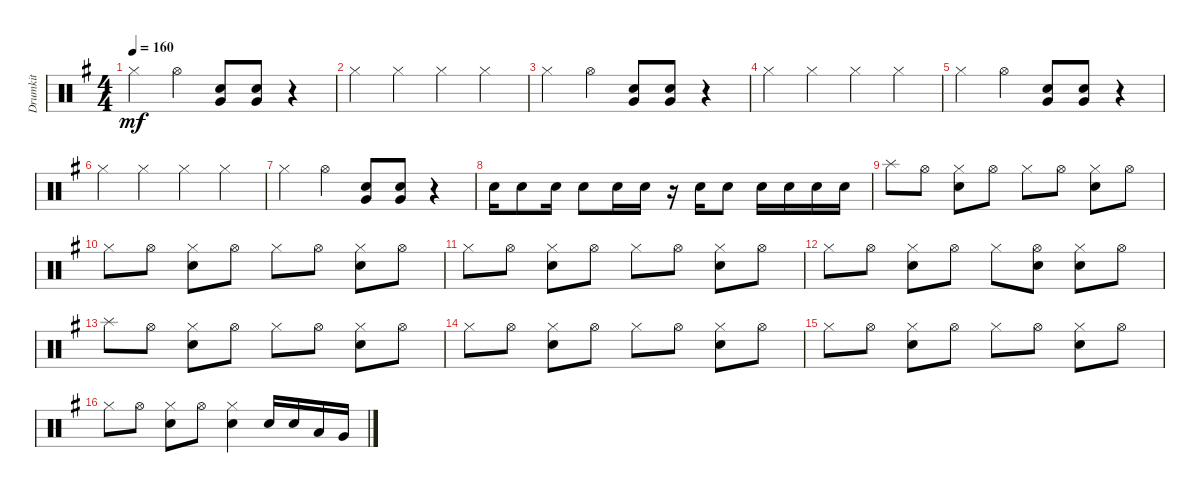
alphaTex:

\track ("Drumkit" "Drumkit") {instrument percussion}
\staff {score}
\articulation defaults
\ts (4 4)
\tempo 160
\clef neutral
\ks g "Hi-Hat (closed)".4{dy mf} "Hi-Hat (open)".4
("Snare (hit) 2" "Very Low Tom (hit)").8 ("Very Low Tom (hit)" "Snare (hit) 2").8 r.4 |
"Hi-Hat (closed)".4 "Hi-Hat (closed)".4 "Hi-Hat (closed)".4 "Hi-Hat (closed)".4 |
"Hi-Hat (closed)".4 "Hi-Hat (open)".4 ("Snare (hit) 2" "Very Low Tom (hit)").8 ("Very Low Tom (hit)" "Snare (hit) 2").8 r.4 |
"Hi-Hat (closed)".4 "Hi-Hat (closed)".4 "Hi-Hat (closed)".4 "Hi-Hat (closed)".4 |
"Hi-Hat (closed)".4 "Hi-Hat (open)".4 ("Snare (hit) 2" "Very Low Tom (hit)").8 ("Very Low Tom (hit)" "Snare (hit) 2").8 r.4 |
"Hi-Hat (closed)".4 "Hi-Hat (closed)".4 "Hi-Hat (closed)".4 "Hi-Hat (closed)".4 |
"Hi-Hat (closed)".4 "Hi-Hat (open)".4 ("Snare (hit) 2" "Very Low Tom (hit)").8 ("Very Low Tom (hit)" "Snare (hit) 2").8 r.4 |
"Snare (hit) 2".16 "Snare (hit) 2".8 "Snare (hit) 2".16 "Snare (hit) 2".8 "Snare (hit) 2".16 "Snare (hit) 2".16 r.16 "Snare (hit) 2".16 "Snare (hit) 2".8 "Snare (hit) 2".16 "Snare (hit) 2".16 "Snare (hit) 2".16 "Snare (hit) 2".16 |
"Splash (hit)".8 "Hi-Hat (open)".8 ("Hi-Hat (closed)" "Snare (hit) 2").8 "Hi-Hat (open)".8 "Hi-Hat (closed)".8 "Hi-Hat (open)".8 ("Hi-Hat (closed)" "Snare (hit) 2").8 "Hi-Hat (open)".8 |
"Hi-Hat (closed)".8 "Hi-Hat (open)".8 ("Hi-Hat (closed)" "Snare (hit) 2").8 "Hi-Hat (open)".8 "Hi-Hat (closed)".8 "Hi-Hat (open)".8 ("Hi-Hat (closed)" "Snare (hit) 2").8 "Hi-Hat (open)".8 |
"Hi-Hat (closed)".8 "Hi-Hat (open)".8 ("Hi-Hat (closed)" "Snare (hit) 2").8 "Hi-Hat (open)".8 "Hi-Hat (closed)".8 "Hi-Hat (open)".8 ("Hi-Hat (closed)" "Snare (hit) 2").8 "Hi-Hat (open)".8 |
"Hi-Hat (closed)".8 "Hi-Hat (open)".8 ("Hi-Hat (closed)" "Snare (hit) 2").8 "Hi-Hat (open)".8 "Hi-Hat (closed)".8 ("Hi-Hat (open)" "Snare (hit) 2").8 ("Snare (hit) 2" "Hi-Hat (closed)").8 "Hi-Hat (open)".8 |
"Splash (hit)".8 "Hi-Hat (open)".8 ("Hi-Hat (closed)" "Snare (hit) 2").8 "Hi-Hat (open)".8 "Hi-Hat (closed)".8 "Hi-Hat (open)".8 ("Hi-Hat (closed)" "Snare (hit) 2").8 "Hi-Hat (open)".8 |
"Hi-Hat (closed)".8 "Hi-Hat (open)".8 ("Hi-Hat (closed)" "Snare (hit) 2").8 "Hi-Hat (open)".8 "Hi-Hat (closed)".8 "Hi-Hat (open)".8 ("Hi-Hat (closed)" "Snare (hit) 2").8 "Hi-Hat (open)".8 |
"Hi-Hat (closed)".8 "Hi-Hat (open)".8 ("Hi-Hat (closed)" "Snare (hit) 2").8 "Hi-Hat (open)".8 "Hi-Hat (closed)".8 "Hi-Hat (open)".8 ("Hi-Hat (closed)" "Snare (hit) 2").8 "Hi-Hat (open)".8 |
"Hi-Hat (closed)".8 "Hi-Hat (open)".8 ("Hi-Hat (closed)" "Snare (hit) 2").8 "Hi-Hat (open)".8 ("Hi-Hat (closed)" "Snare (hit) 2").4 "Snare (hit) 2".16 "Snare (hit) 2".16 "Low Tom (hit)".16 "Very Low Tom (hit)".16
